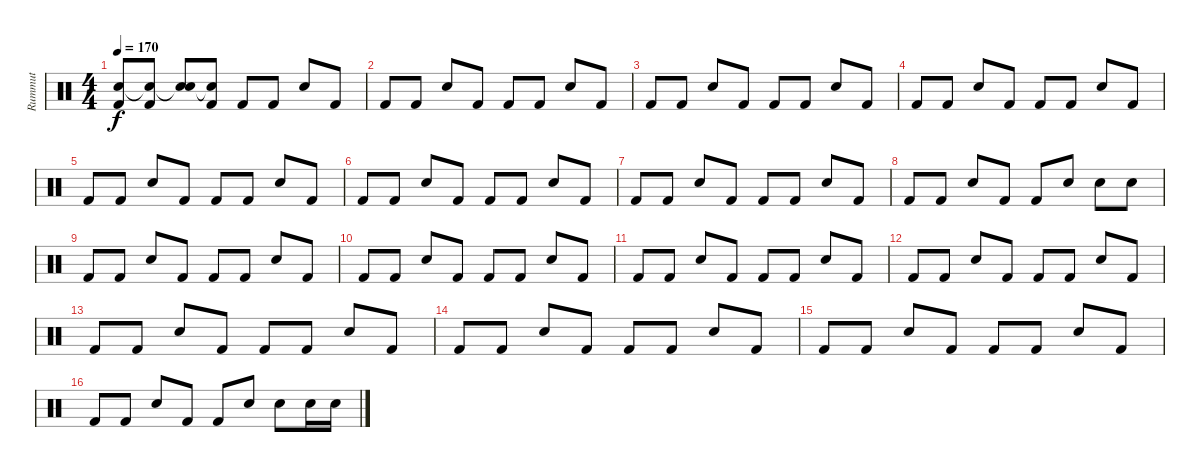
\track ("Rummut" "Rummut") {instrument percussion}
\staff {score}
\articulation defaults
\ts (4 4)
\tempo 170
\clef neutral
\ks c
("Snare (hit)"{t} "Kick (hit) 2").8{dy f} ("Snare (hit)"{t} "Kick (hit) 2").8 ("Snare (hit)"{t} "Electric Snare (hit)").8 ("Snare (hit)"{t} "Kick (hit) 2").8 "Kick (hit) 2".8 "Kick (hit) 2".8 "Electric Snare (hit)".8 "Kick (hit) 2".8 |
"Kick (hit) 2".8 "Kick (hit) 2".8 "Electric Snare (hit)".8 "Kick (hit) 2".8 "Kick (hit) 2".8 "Kick (hit) 2".8 "Electric Snare (hit)".8 "Kick (hit) 2".8 |
"Kick (hit) 2".8 "Kick (hit) 2".8 "Electric Snare (hit)".8 "Kick (hit) 2".8 "Kick (hit) 2".8 "Kick (hit) 2".8 "Electric Snare (hit)".8 "Kick (hit) 2".8 |
"Kick (hit) 2".8 "Kick (hit) 2".8 "Electric Snare (hit)".8 "Kick (hit) 2".8 "Kick (hit) 2".8 "Kick (hit) 2".8 "Electric Snare (hit)".8 "Kick (hit) 2".8 |
"Kick (hit) 2".8 "Kick (hit) 2".8 "Electric Snare (hit)".8 "Kick (hit) 2".8 "Kick (hit) 2".8 "Kick (hit) 2".8 "Electric Snare (hit)".8 "Kick (hit) 2".8 |
"Kick (hit) 2".8 "Kick (hit) 2".8 "Electric Snare (hit)".8 "Kick (hit) 2".8 "Kick (hit) 2".8 "Kick (hit) 2".8 "Electric Snare (hit)".8 "Kick (hit) 2".8 |
"Kick (hit) 2".8 "Kick (hit) 2".8 "Electric Snare (hit)".8 "Kick (hit) 2".8 "Kick (hit) 2".8 "Kick (hit) 2".8 "Electric Snare (hit)".8 "Kick (hit) 2".8 |
"Kick (hit) 2".8 "Kick (hit) 2".8 "Electric Snare (hit)".8 "Kick (hit) 2".8 "Kick (hit) 2".8 "Electric Snare (hit)".8 "Electric Snare (hit)".8 "Electric Snare (hit)".8 |
"Kick (hit) 2".8 "Kick (hit) 2".8 "Electric Snare (hit)".8 "Kick (hit) 2".8 "Kick (hit) 2".8 "Kick (hit) 2".8 "Electric Snare (hit)".8 "Kick (hit) 2".8 |
"Kick (hit) 2".8 "Kick (hit) 2".8 "Electric Snare (hit)".8 "Kick (hit) 2".8 "Kick (hit) 2".8 "Kick (hit) 2".8 "Electric Snare (hit)".8 "Kick (hit) 2".8 |
"Kick (hit) 2".8 "Kick (hit) 2".8 "Electric Snare (hit)".8 "Kick (hit) 2".8 "Kick (hit) 2".8 "Kick (hit) 2".8 "Electric Snare (hit)".8 "Kick (hit) 2".8 |
"Kick (hit) 2".8 "Kick (hit) 2".8 "Electric Snare (hit)".8 "Kick (hit) 2".8 "Kick (hit) 2".8 "Kick (hit) 2".8 "Electric Snare (hit)".8 "Kick (hit) 2".8 |
"Kick (hit) 2".8 "Kick (hit) 2".8 "Electric Snare (hit)".8 "Kick (hit) 2".8 "Kick (hit) 2".8 "Kick (hit) 2".8 "Electric Snare (hit)".8 "Kick (hit) 2".8 |
"Kick (hit) 2".8 "Kick (hit) 2".8 "Electric Snare (hit)".8 "Kick (hit) 2".8 "Kick (hit) 2".8 "Kick (hit) 2".8 "Electric Snare (hit)".8 "Kick (hit) 2".8 |
"Kick (hit) 2".8 "Kick (hit) 2".8 "Electric Snare (hit)".8 "Kick (hit) 2".8 "Kick (hit) 2".8 "Kick (hit) 2".8 "Electric Snare (hit)".8 "Kick (hit) 2".8 |
"Kick (hit) 2".8 "Kick (hit) 2".8 "Electric Snare (hit)".8 "Kick (hit) 2".8 "Kick (hit) 2".8 "Electric Snare (hit)".8 "Electric Snare (hit)".8 "Electric Snare (hit)".16 "Electric Snare (hit)".16
